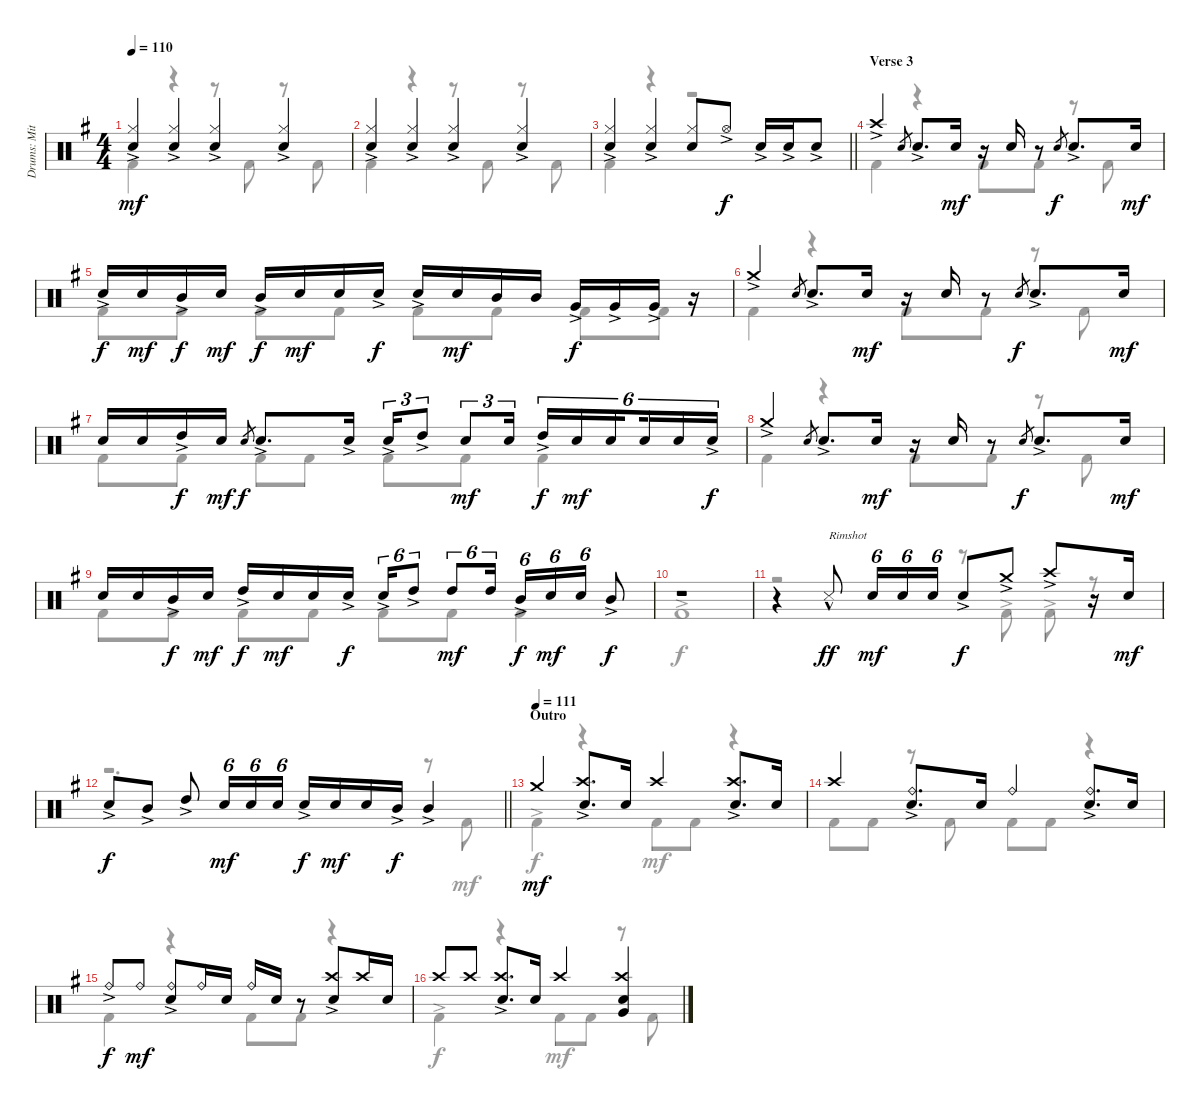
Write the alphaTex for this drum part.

\track ("Drums: Mitch Mitchell" "Drums: Mit") {instrument percussion}
\staff {score}
\articulation defaults
\voice
\ts (4 4)
\tempo 110
\clef neutral
\ks g
("Hi-Hat (closed)"{ac} "Snare (hit) 2").4{dy mf} ("Hi-Hat (closed)"{ac} "Snare (hit) 2").4 ("Hi-Hat (closed)"{ac} "Snare (hit) 2").4 ("Hi-Hat (closed)"{ac} "Snare (hit) 2").4 |
("Hi-Hat (closed)"{ac} "Snare (hit) 2").4 ("Hi-Hat (closed)"{ac} "Snare (hit) 2").4 ("Hi-Hat (closed)"{ac} "Snare (hit) 2").4 ("Hi-Hat (closed)"{ac} "Snare (hit) 2").4 |
\barLineRight lightlight
("Hi-Hat (closed)"{ac} "Snare (hit) 2").4 ("Hi-Hat (closed)"{ac} "Snare (hit) 2").4 ("Hi-Hat (closed)" "Snare (hit) 2").8 "Hi-Hat (open)"{ac}.8{dy f} "Snare (hit) 2"{ac}.16 "Snare (hit) 2"{ac}.16 "Snare (hit) 2"{ac}.8 |
\section ("" "Verse 3")
"Crash high (hit)"{ac}.4 "Snare (hit) 2".8{gr} "Snare (hit) 2"{ac}.8{d} "Snare (hit) 2".16{dy mf} r.16 "Snare (hit) 2".16 r.8 "Snare (hit) 2".8{gr dy f} "Snare (hit) 2"{ac}.8{d} "Snare (hit) 2".16{dy mf} |
"Snare (hit) 2"{ac}.16{dy f} "Snare (hit) 2".16{dy mf} "Mid Tom (hit)"{ac}.16{dy f} "Snare (hit) 2".16{dy mf} "Mid Tom (hit)"{ac}.16{dy f} "Snare (hit) 2".16{dy mf} "Snare (hit) 2".16 "Snare (hit) 2"{ac}.16{dy f} "Snare (hit) 2"{ac}.16 "Snare (hit) 2".16{dy mf} "Mid Tom (hit)".16 "Mid Tom (hit)".16 "Very Low Tom (hit)"{ac}.16{dy f} "Very Low Tom (hit)"{ac}.16 "Very Low Tom (hit)"{ac}.16 r.16 |
"Crash medium (hit)"{ac}.4 "Snare (hit) 2".8{gr} "Snare (hit) 2"{ac}.8{d} "Snare (hit) 2".16{dy mf} r.16 "Snare (hit) 2".16 r.8 "Snare (hit) 2".8{gr dy f} "Snare (hit) 2"{ac}.8{d} "Snare (hit) 2".16{dy mf} |
"Snare (hit) 2".16 "Snare (hit) 2".16 "High Tom (hit)"{ac}.16{dy f} "Snare (hit) 2".16{dy mf} "Snare (hit) 2".8{gr dy f} "Snare (hit) 2"{ac}.8{d} "Snare (hit) 2"{ac}.16 "Snare (hit) 2"{ac}.16{tu (3 2)} "High Tom (hit)"{ac}.8{tu (3 2)} "Snare (hit) 2".8{tu (3 2) dy mf} "Snare (hit) 2".16{tu (3 2)} "High Tom (hit)"{ac}.16{tu (6 4) dy f} "Snare (hit) 2".16{tu (6 4) dy mf} "Snare (hit) 2".16{tu (6 4) beam splitsecondary} "Snare (hit) 2".16{tu (6 4)} "Snare (hit) 2".16{tu (6 4)} "Snare (hit) 2"{ac}.16{tu (6 4) dy f} |
"Crash medium (hit)"{ac}.4 "Snare (hit) 2".8{gr} "Snare (hit) 2"{ac}.8{d} "Snare (hit) 2".16{dy mf} r.16 "Snare (hit) 2".16 r.8 "Snare (hit) 2".8{gr dy f} "Snare (hit) 2"{ac}.8{d} "Snare (hit) 2".16{dy mf} |
"Snare (hit) 2".16 "Snare (hit) 2".16 "Mid Tom (hit)"{ac}.16{dy f} "Snare (hit) 2".16{dy mf} "High Tom (hit)"{ac}.16{dy f} "Snare (hit) 2".16{dy mf} "Snare (hit) 2".16 "Snare (hit) 2"{ac}.16{dy f} "Snare (hit) 2"{ac}.16{tu (6 4)} "High Tom (hit)"{ac}.8{tu (6 4)} "High Tom (hit)".8{tu (6 4) dy mf} "High Tom (hit)".16{tu (6 4)} "Mid Tom (hit)"{ac}.16{tu (6 4) dy f} "Snare (hit) 2".16{tu (6 4) dy mf} "Snare (hit) 2".16{tu (6 4)} "Mid Tom (hit)"{ac}.8{dy f} |
r.1 |
r.4 "Snare (side stick) 3"{hac}.8{txt "Rimshot" dy ff} "Snare (hit) 2".16{tu (6 4) dy mf} "Snare (hit) 2".16{tu (6 4)} "Snare (hit) 2".16{tu (6 4)} "Snare (hit) 2"{ac}.8{dy f} "Crash medium (hit)"{ac}.8 "Crash high (hit)"{ac}.8 r.16 "Snare (hit) 2".16{dy mf} |
\barLineRight lightlight "Snare (hit) 2"{ac}.8{dy f} "Mid Tom (hit)"{ac}.8 "High Tom (hit)"{ac}.8 "Snare (hit) 2".16{tu (6 4) dy mf} "Snare (hit) 2".16{tu (6 4)} "Snare (hit) 2".16{tu (6 4)} "Snare (hit) 2"{ac}.16{dy f} "Snare (hit) 2".16{dy mf} "Snare (hit) 2".16 "Mid Tom (hit)"{ac}.16{dy f} "Mid Tom (hit)"{ac}.4
|
\section ("" "Outro")
\tempo (111)
"Crash medium (hit)".4{dy mf} ("Crash high (hit)" "Snare (hit) 2"{ac}).8{d} "Snare (hit) 2".16 "Crash high (hit)".4 ("Crash high (hit)" "Snare (hit) 2"{ac}).8{d} "Snare (hit) 2".16 |
"Crash high (hit)".4 ("Ride (bell)" "Snare (hit) 2"{ac}).8{d} "Snare (hit) 2".16 "Ride (bell)".4 ("Ride (bell)" "Snare (hit) 2"{ac}).8{d} "Snare (hit) 2".16 |
"Ride (bell)"{ac}.8{dy f} "Ride (bell)".8{dy mf} ("Ride (bell)" "Snare (hit) 2"{ac}).8 "Ride (bell)".16 "Snare (hit) 2".16 "Ride (bell)".16 "Snare (hit) 2".16 r.8 ("Crash high (hit)" "Snare (hit) 2"{ac}).8 "Crash high (hit)".16 "Snare (hit) 2".16 |
"Crash high (hit)".8 "Crash high (hit)".8 ("Crash high (hit)" "Snare (hit) 2"{ac}).8{d} "Snare (hit) 2".16 "Crash high (hit)".4 ("Crash high (hit)" "Snare (hit) 2" "Very Low Tom (hit)").4
\voice
\clef neutral
\ottava regular
\simile none
\ks g "Kick (hit) 2".4{dy mf}
r.4 r.8 "Kick (hit) 2".8 r.8 "Kick (hit) 2".8 |
"Kick (hit) 2".4 r.4 r.8 "Kick (hit) 2".8 r.8 "Kick (hit) 2".8 |
\barLineRight lightlight "Kick (hit) 2".4
r.4 r.2 |
"Kick (hit) 2".4 r.4 "Kick (hit) 2".8 "Kick (hit) 2".8 r.8 "Kick (hit) 2".8 |
"Kick (hit) 2".8 "Kick (hit) 2".8 "Kick (hit) 2".8 "Kick (hit) 2".8 "Kick (hit) 2".8 "Kick (hit) 2".8 "Kick (hit) 2".8 "Kick (hit) 2".8 |
"Kick (hit) 2".4 r.4 "Kick (hit) 2".8 "Kick (hit) 2".8 r.8 "Kick (hit) 2".8 |
"Kick (hit) 2".8 "Kick (hit) 2".8 "Kick (hit) 2".8 "Kick (hit) 2".8 "Kick (hit) 2".8 "Kick (hit) 2".8 "Kick (hit) 2".4 |
"Kick (hit) 2".4 r.4 "Kick (hit) 2".8 "Kick (hit) 2".8 r.8 "Kick (hit) 2".8 |
"Kick (hit) 2".8 "Kick (hit) 2".8 "Kick (hit) 2".8 "Kick (hit) 2".8 "Kick (hit) 2".8 "Kick (hit) 2".8 "Kick (hit) 2".4 |
"Kick (hit) 2"{ac}.1{dy f} |
r.2 r.8 "Kick (hit) 2"{ac}.8 "Kick (hit) 2"{ac}.8 r.8 |
\barLineRight lightlight
r.2{d} r.8 "Kick (hit) 2".8{dy mf} |
"Kick (hit) 2"{ac}.4{dy f} r.4 "Kick (hit) 2".8{dy mf} "Kick (hit) 2".8 r.4 |
"Kick (hit) 2".8 "Kick (hit) 2".8 r.8 "Kick (hit) 2".8 "Kick (hit) 2".8 "Kick (hit) 2".8 r.4 |
"Kick (hit) 2".4 r.4 "Kick (hit) 2".8 "Kick (hit) 2".8 r.4 |
"Kick (hit) 2"{ac}.4{dy f} r.4 "Kick (hit) 2".8{dy mf} "Kick (hit) 2".8 r.8 "Kick (hit) 2".8
